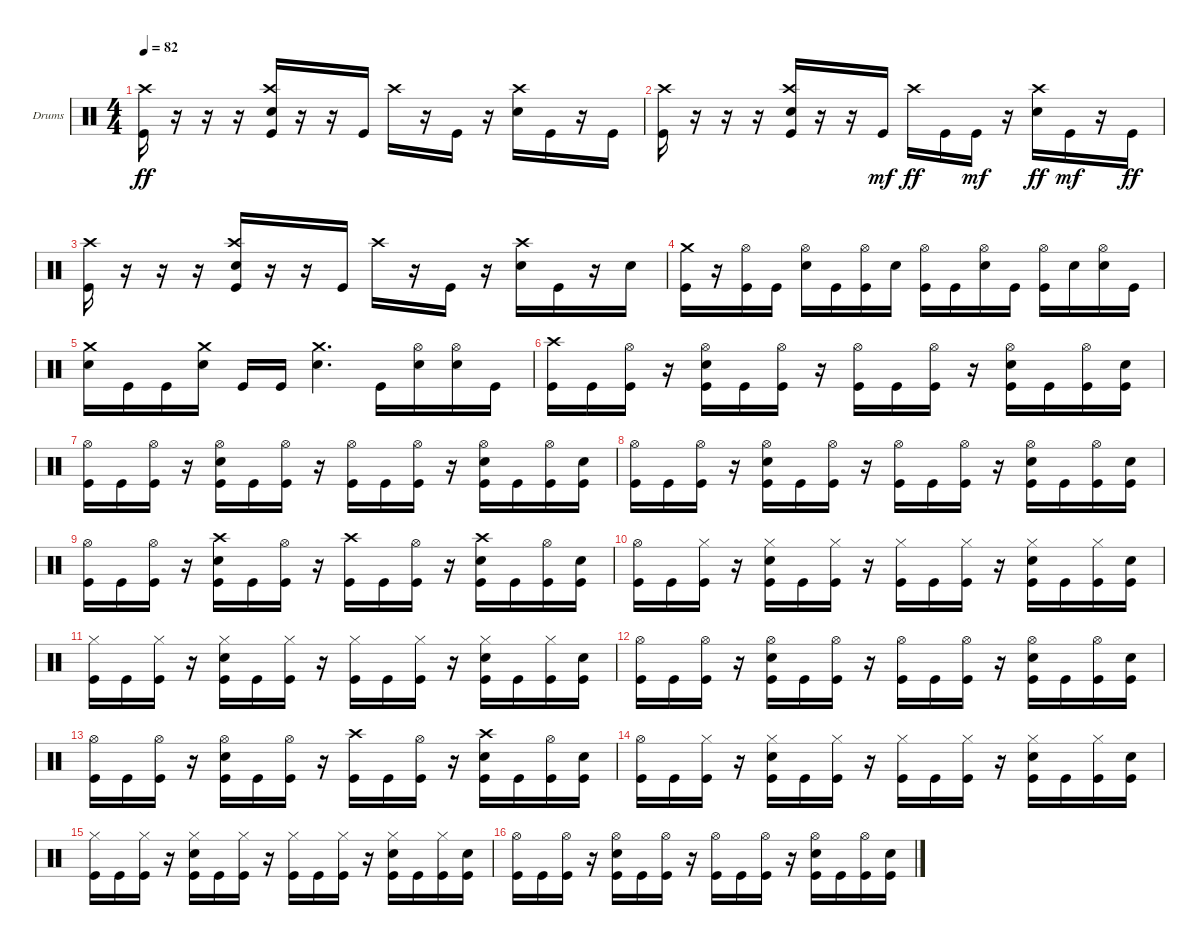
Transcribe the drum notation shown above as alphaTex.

\bracketExtendMode groupsimilarinstruments
\firstSystemTrackNameOrientation horizontal
\otherSystemsTrackNameOrientation horizontal
\track ("Kaleb - Drums" "Drums") {instrument percussion}
\staff {score}
\articulation defaults
\ts (4 4)
\tempo 82
\clef neutral
\ks c
("Kick (hit)" "Crash high (hit)").16{dy ff} r.16 r.16 r.16 ("Kick (hit)" "Crash high (hit)" "Snare (hit) 2").16 r.16 r.16 "Kick (hit)".16 "Crash high (hit)".16 r.16 "Kick (hit)".16 r.16 ("Crash high (hit)" "Snare (hit) 2").16 "Kick (hit)".16 r.16 "Kick (hit)".16 |
("Kick (hit)" "Crash high (hit)").16 r.16 r.16 r.16 ("Kick (hit)" "Snare (hit) 2" "Crash high (hit)").16 r.16 r.16 "Kick (hit)".16{dy mf} "Crash high (hit)".16{dy ff} "Kick (hit)".16 "Kick (hit)".16{dy mf} r.16 ("Snare (hit) 2" "Crash high (hit)").16{dy ff} "Kick (hit)".16{dy mf} r.16 "Kick (hit)".16{dy ff} |
("Kick (hit)" "Crash high (hit)").16 r.16 r.16 r.16 ("Kick (hit)" "Crash high (hit)" "Snare (hit) 2").16 r.16 r.16 "Kick (hit)".16 "Crash high (hit)".16 r.16 "Kick (hit)".16 r.16 ("Crash high (hit)" "Snare (hit) 2").16 "Kick (hit)".16 r.16 "Snare (hit) 2".16 |
("Crash medium (hit)" "Kick (hit)").16 r.16 ("Kick (hit)" "Hi-Hat (open)").16 "Kick (hit)".16 ("Snare (hit) 2" "Hi-Hat (open)").16 "Kick (hit)".16 ("Kick (hit)" "Hi-Hat (open)").16 "Snare (hit) 2".16 ("Kick (hit)" "Hi-Hat (open)").16 "Kick (hit)".16 ("Snare (hit) 2" "Hi-Hat (open)").16 "Kick (hit)".16 ("Kick (hit)" "Hi-Hat (open)").16 "Snare (hit) 2".16 ("Snare (hit) 2" "Hi-Hat (open)").16 "Kick (hit)".16 |
("Crash medium (hit)" "Snare (hit) 2").16 "Kick (hit)".16 "Kick (hit)".16 ("Crash medium (hit)" "Snare (hit) 2").16 "Kick (hit)".16 "Kick (hit)".16 ("Crash medium (hit)" "Snare (hit) 2").4{d} "Kick (hit)".16 ("Snare (hit) 2" "Hi-Hat (open)").16 ("Snare (hit) 2" "Hi-Hat (open)").16 "Kick (hit)".16 |
("Kick (hit)" "Crash high (hit)").16 "Kick (hit)".16 ("Kick (hit)" "Hi-Hat (open)").16 r.16 ("Kick (hit)" "Snare (hit) 2" "Hi-Hat (open)").16 "Kick (hit)".16 ("Kick (hit)" "Hi-Hat (open)").16 r.16 ("Kick (hit)" "Hi-Hat (open)").16 "Kick (hit)".16 ("Kick (hit)" "Hi-Hat (open)").16 r.16 ("Kick (hit)" "Snare (hit) 2" "Hi-Hat (open)").16 "Kick (hit)".16 ("Kick (hit)" "Hi-Hat (open)").16 ("Kick (hit)" "Snare (hit) 2").16 |
("Kick (hit)" "Hi-Hat (open)").16 "Kick (hit)".16 ("Kick (hit)" "Hi-Hat (open)").16 r.16 ("Kick (hit)" "Snare (hit) 2" "Hi-Hat (open)").16 "Kick (hit)".16 ("Kick (hit)" "Hi-Hat (open)").16 r.16 ("Kick (hit)" "Hi-Hat (open)").16 "Kick (hit)".16 ("Kick (hit)" "Hi-Hat (open)").16 r.16 ("Kick (hit)" "Snare (hit) 2" "Hi-Hat (open)").16 "Kick (hit)".16 ("Kick (hit)" "Hi-Hat (open)").16 ("Kick (hit)" "Snare (hit) 2").16 |
("Kick (hit)" "Hi-Hat (open)").16 "Kick (hit)".16 ("Kick (hit)" "Hi-Hat (open)").16 r.16 ("Kick (hit)" "Snare (hit) 2" "Hi-Hat (open)").16 "Kick (hit)".16 ("Kick (hit)" "Hi-Hat (open)").16 r.16 ("Kick (hit)" "Hi-Hat (open)").16 "Kick (hit)".16 ("Kick (hit)" "Hi-Hat (open)").16 r.16 ("Kick (hit)" "Snare (hit) 2" "Hi-Hat (open)").16 "Kick (hit)".16 ("Kick (hit)" "Hi-Hat (open)").16 ("Kick (hit)" "Snare (hit) 2").16 |
("Kick (hit)" "Hi-Hat (open)").16 "Kick (hit)".16 ("Kick (hit)" "Hi-Hat (open)").16 r.16 ("Kick (hit)" "Snare (hit) 2" "Crash high (hit)").16 "Kick (hit)".16 ("Kick (hit)" "Hi-Hat (open)").16 r.16 ("Kick (hit)" "Crash high (hit)").16 "Kick (hit)".16 ("Kick (hit)" "Hi-Hat (open)").16 r.16 ("Kick (hit)" "Snare (hit) 2" "Crash high (hit)").16 "Kick (hit)".16 ("Kick (hit)" "Hi-Hat (open)").16 ("Kick (hit)" "Snare (hit) 2").16 |
("Kick (hit)" "Hi-Hat (open)").16 "Kick (hit)".16 ("Kick (hit)" "Hi-Hat (closed)").16 r.16 ("Kick (hit)" "Snare (hit) 2" "Hi-Hat (closed)").16 "Kick (hit)".16 ("Kick (hit)" "Hi-Hat (closed)").16 r.16 ("Kick (hit)" "Hi-Hat (closed)").16 "Kick (hit)".16 ("Kick (hit)" "Hi-Hat (closed)").16 r.16 ("Kick (hit)" "Snare (hit) 2" "Hi-Hat (closed)").16 "Kick (hit)".16 ("Kick (hit)" "Hi-Hat (closed)").16 ("Kick (hit)" "Snare (hit) 2").16 |
("Kick (hit)" "Hi-Hat (closed)").16 "Kick (hit)".16 ("Kick (hit)" "Hi-Hat (closed)").16 r.16 ("Kick (hit)" "Snare (hit) 2" "Hi-Hat (closed)").16 "Kick (hit)".16 ("Kick (hit)" "Hi-Hat (closed)").16 r.16 ("Kick (hit)" "Hi-Hat (closed)").16 "Kick (hit)".16 ("Kick (hit)" "Hi-Hat (closed)").16 r.16 ("Kick (hit)" "Snare (hit) 2" "Hi-Hat (closed)").16 "Kick (hit)".16 ("Kick (hit)" "Hi-Hat (closed)").16 ("Kick (hit)" "Snare (hit) 2").16 |
("Kick (hit)" "Hi-Hat (open)").16 "Kick (hit)".16 ("Kick (hit)" "Hi-Hat (open)").16 r.16 ("Kick (hit)" "Snare (hit) 2" "Hi-Hat (open)").16 "Kick (hit)".16 ("Kick (hit)" "Hi-Hat (open)").16 r.16 ("Kick (hit)" "Hi-Hat (open)").16 "Kick (hit)".16 ("Kick (hit)" "Hi-Hat (open)").16 r.16 ("Kick (hit)" "Snare (hit) 2" "Hi-Hat (open)").16 "Kick (hit)".16 ("Kick (hit)" "Hi-Hat (open)").16 ("Kick (hit)" "Snare (hit) 2").16 |
("Kick (hit)" "Hi-Hat (open)").16 "Kick (hit)".16 ("Kick (hit)" "Hi-Hat (open)").16 r.16 ("Kick (hit)" "Snare (hit) 2" "Hi-Hat (open)").16 "Kick (hit)".16 ("Kick (hit)" "Hi-Hat (open)").16 r.16 ("Kick (hit)" "Crash high (hit)").16 "Kick (hit)".16 ("Kick (hit)" "Hi-Hat (open)").16 r.16 ("Kick (hit)" "Snare (hit) 2" "Crash high (hit)").16 "Kick (hit)".16 ("Kick (hit)" "Hi-Hat (open)").16 ("Kick (hit)" "Snare (hit) 2").16 |
("Kick (hit)" "Hi-Hat (open)").16 "Kick (hit)".16 ("Kick (hit)" "Hi-Hat (closed)").16 r.16 ("Kick (hit)" "Snare (hit) 2" "Hi-Hat (closed)").16 "Kick (hit)".16 ("Kick (hit)" "Hi-Hat (closed)").16 r.16 ("Kick (hit)" "Hi-Hat (closed)").16 "Kick (hit)".16 ("Kick (hit)" "Hi-Hat (closed)").16 r.16 ("Kick (hit)" "Snare (hit) 2" "Hi-Hat (closed)").16 "Kick (hit)".16 ("Kick (hit)" "Hi-Hat (closed)").16 ("Kick (hit)" "Snare (hit) 2").16 |
("Kick (hit)" "Hi-Hat (closed)").16 "Kick (hit)".16 ("Kick (hit)" "Hi-Hat (closed)").16 r.16 ("Kick (hit)" "Snare (hit) 2" "Hi-Hat (closed)").16 "Kick (hit)".16 ("Kick (hit)" "Hi-Hat (closed)").16 r.16 ("Kick (hit)" "Hi-Hat (closed)").16 "Kick (hit)".16 ("Kick (hit)" "Hi-Hat (closed)").16 r.16 ("Kick (hit)" "Snare (hit) 2" "Hi-Hat (closed)").16 "Kick (hit)".16 ("Kick (hit)" "Hi-Hat (closed)").16 ("Kick (hit)" "Snare (hit) 2").16 |
("Kick (hit)" "Hi-Hat (open)").16 "Kick (hit)".16 ("Kick (hit)" "Hi-Hat (open)").16 r.16 ("Kick (hit)" "Snare (hit) 2" "Hi-Hat (open)").16 "Kick (hit)".16 ("Kick (hit)" "Hi-Hat (open)").16 r.16 ("Kick (hit)" "Hi-Hat (open)").16 "Kick (hit)".16 ("Kick (hit)" "Hi-Hat (open)").16 r.16 ("Kick (hit)" "Snare (hit) 2" "Hi-Hat (open)").16 "Kick (hit)".16 ("Kick (hit)" "Hi-Hat (open)").16 ("Kick (hit)" "Snare (hit) 2").16
